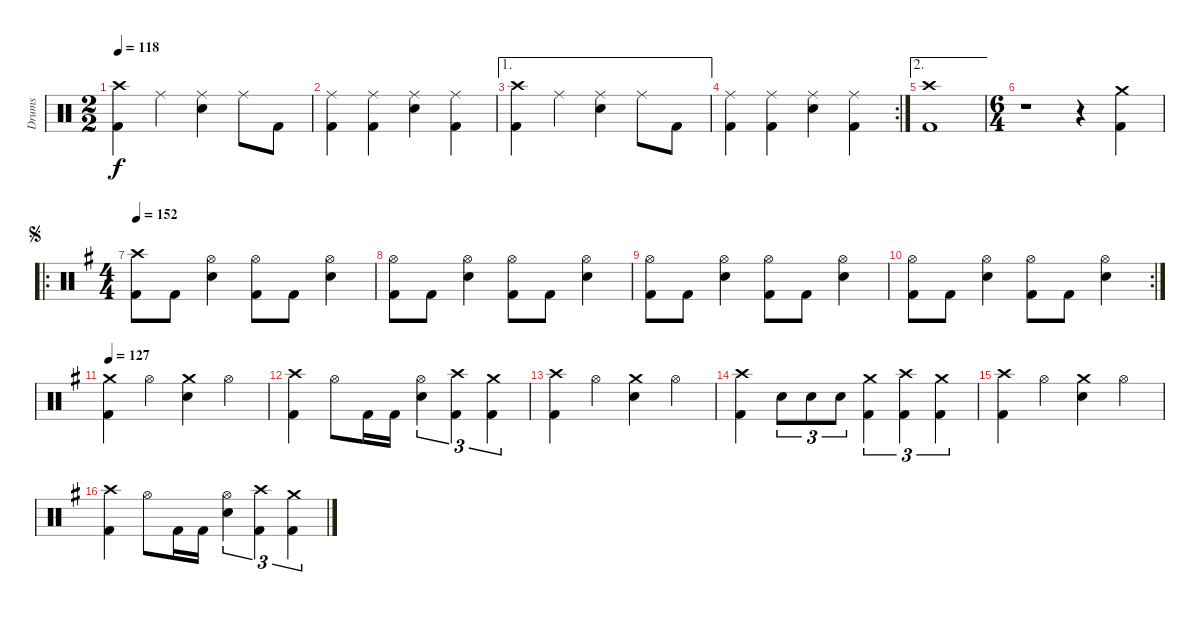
\track ("Drums" "Drums") {mute instrument percussion}
\staff {score}
\articulation defaults
\ts (2 2)
\tempo 118
\clef neutral
\ks c
("Crash high (hit)" "Kick (hit) 2").4{dy f} "Ride (middle)".4 ("Ride (middle)" "Snare (hit) 2").4 "Ride (middle)".8 "Kick (hit) 2".8 |
("Ride (middle)" "Kick (hit) 2").4 ("Ride (middle)" "Kick (hit) 2").4 ("Ride (middle)" "Snare (hit) 2").4 ("Ride (middle)" "Kick (hit) 2").4 |
\ae 1
("Crash high (hit)" "Kick (hit) 2").4 "Ride (middle)".4 ("Ride (middle)" "Snare (hit) 2").4 "Ride (middle)".8 "Kick (hit) 2".8 |
\rc 2
("Ride (middle)" "Kick (hit) 2").4 ("Ride (middle)" "Kick (hit) 2").4 ("Ride (middle)" "Snare (hit) 2").4 ("Ride (middle)" "Kick (hit) 2").4 |
\ae 2
("Crash high (hit)" "Kick (hit) 2").1 |
\ts (6 4)
r.1 r.4 ("Crash medium (hit)" "Kick (hit) 2").4 |
\ro
\ts (4 4)
\jump segno
\tempo 152
\ks g
("Crash high (hit)" "Kick (hit) 2").8 "Kick (hit) 2".8 ("Hi-Hat (open)" "Snare (hit) 2").4 ("Hi-Hat (open)" "Kick (hit) 2").8 "Kick (hit) 2".8 ("Hi-Hat (open)" "Snare (hit) 2").4 |
("Hi-Hat (open)" "Kick (hit) 2").8 "Kick (hit) 2".8 ("Hi-Hat (open)" "Snare (hit) 2").4 ("Hi-Hat (open)" "Kick (hit) 2").8 "Kick (hit) 2".8 ("Hi-Hat (open)" "Snare (hit) 2").4 |
("Hi-Hat (open)" "Kick (hit) 2").8 "Kick (hit) 2".8 ("Hi-Hat (open)" "Snare (hit) 2").4 ("Hi-Hat (open)" "Kick (hit) 2").8 "Kick (hit) 2".8 ("Hi-Hat (open)" "Snare (hit) 2").4 |
\rc 2
("Hi-Hat (open)" "Kick (hit) 2").8 "Kick (hit) 2".8 ("Hi-Hat (open)" "Snare (hit) 2").4 ("Hi-Hat (open)" "Kick (hit) 2").8 "Kick (hit) 2".8 ("Hi-Hat (open)" "Snare (hit) 2").4 |
\tempo 127
("Crash medium (hit)" "Kick (hit) 2").4 "Hi-Hat (open)".4 ("Crash medium (hit)" "Snare (hit) 2").4 "Hi-Hat (open)".4 |
("Crash high (hit)" "Kick (hit) 2").4 "Hi-Hat (open)".8 "Kick (hit) 2".16 "Kick (hit) 2".16 ("Hi-Hat (open)" "Snare (hit) 2").4{tu (3 2)} ("Crash high (hit)" "Kick (hit) 2").4{tu (3 2)} ("Crash medium (hit)" "Kick (hit) 2").4{tu (3 2)} |
("Crash high (hit)" "Kick (hit) 2").4 "Hi-Hat (open)".4 ("Crash medium (hit)" "Snare (hit) 2").4 "Hi-Hat (open)".4 |
("Crash high (hit)" "Kick (hit) 2").4 "Snare (hit) 2".8{tu (3 2)} "Snare (hit) 2".8{tu (3 2)} "Snare (hit) 2".8{tu (3 2)} ("Crash medium (hit)" "Kick (hit) 2").4{tu (3 2)} ("Crash high (hit)" "Kick (hit) 2").4{tu (3 2)} ("Crash medium (hit)" "Kick (hit) 2").4{tu (3 2)} |
("Crash high (hit)" "Kick (hit) 2").4 "Hi-Hat (open)".4 ("Crash medium (hit)" "Snare (hit) 2").4 "Hi-Hat (open)".4 |
("Crash high (hit)" "Kick (hit) 2").4 "Hi-Hat (open)".8 "Kick (hit) 2".16 "Kick (hit) 2".16 ("Hi-Hat (open)" "Snare (hit) 2").4{tu (3 2)} ("Crash high (hit)" "Kick (hit) 2").4{tu (3 2)} ("Crash medium (hit)" "Kick (hit) 2").4{tu (3 2)}
